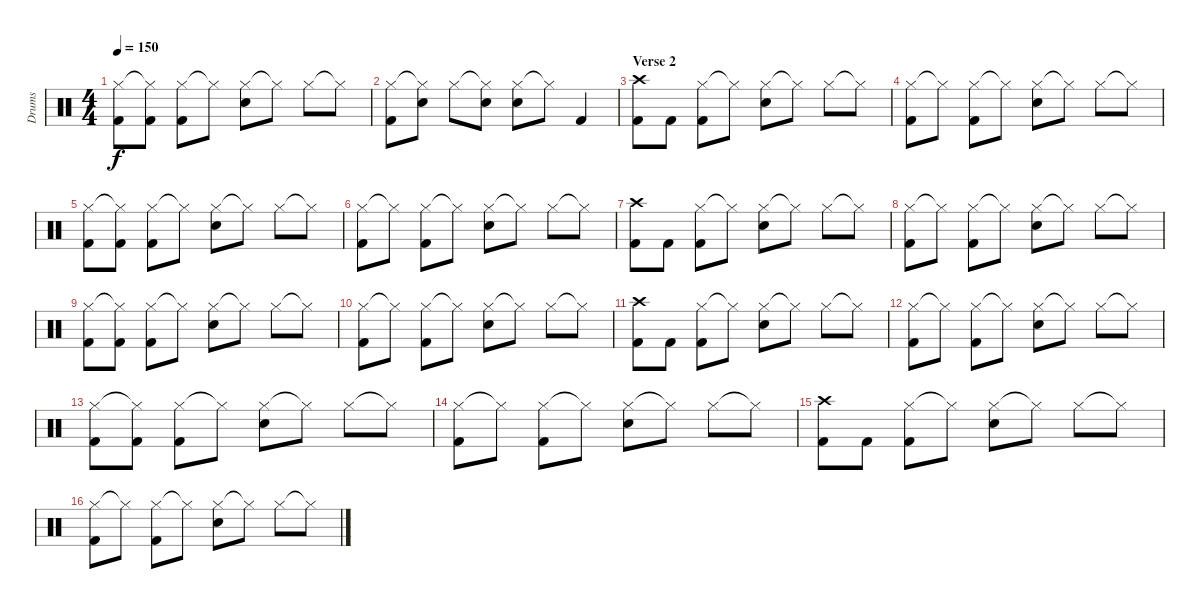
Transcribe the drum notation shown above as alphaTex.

\track ("Drums" "Drums") {instrument percussion}
\staff {score}
\articulation defaults
\ts (4 4)
\tempo 150
\clef neutral
\ks c
("Hi-Hat (closed)" "Kick (hit) 2").8{dy f} ("Hi-Hat (closed)"{t} "Kick (hit) 2").8 ("Hi-Hat (closed)" "Kick (hit) 2").8 "Hi-Hat (closed)"{t}.8 ("Hi-Hat (closed)" "Snare (hit) 2").8 "Hi-Hat (closed)"{t}.8 "Hi-Hat (closed)".8 "Hi-Hat (closed)"{t}.8 |
("Hi-Hat (closed)" "Kick (hit) 2").8 ("Hi-Hat (closed)"{t} "Snare (hit) 2").8 "Hi-Hat (closed)".8 ("Hi-Hat (closed)"{t} "Snare (hit) 2").8 ("Hi-Hat (closed)" "Snare (hit) 2").8 "Hi-Hat (closed)"{t}.8 "Kick (hit) 2".4 |
\section ("" "Verse 2")
("Kick (hit) 2" "Crash high (hit)").8 "Kick (hit) 2".8 ("Hi-Hat (closed)" "Kick (hit) 2").8 "Hi-Hat (closed)"{t}.8 ("Hi-Hat (closed)" "Snare (hit) 2").8 "Hi-Hat (closed)"{t}.8 "Hi-Hat (closed)".8 "Hi-Hat (closed)"{t}.8 |
("Hi-Hat (closed)" "Kick (hit) 2").8 "Hi-Hat (closed)"{t}.8 ("Hi-Hat (closed)" "Kick (hit) 2").8 "Hi-Hat (closed)"{t}.8 ("Hi-Hat (closed)" "Snare (hit) 2").8 "Hi-Hat (closed)"{t}.8 "Hi-Hat (closed)".8 "Hi-Hat (closed)"{t}.8 |
("Hi-Hat (closed)" "Kick (hit) 2").8 ("Hi-Hat (closed)"{t} "Kick (hit) 2").8 ("Hi-Hat (closed)" "Kick (hit) 2").8 "Hi-Hat (closed)"{t}.8 ("Hi-Hat (closed)" "Snare (hit) 2").8 "Hi-Hat (closed)"{t}.8 "Hi-Hat (closed)".8 "Hi-Hat (closed)"{t}.8 |
("Hi-Hat (closed)" "Kick (hit) 2").8 "Hi-Hat (closed)"{t}.8 ("Hi-Hat (closed)" "Kick (hit) 2").8 "Hi-Hat (closed)"{t}.8 ("Hi-Hat (closed)" "Snare (hit) 2").8 "Hi-Hat (closed)"{t}.8 "Hi-Hat (closed)".8 "Hi-Hat (closed)"{t}.8 |
("Kick (hit) 2" "Crash high (hit)").8 "Kick (hit) 2".8 ("Hi-Hat (closed)" "Kick (hit) 2").8 "Hi-Hat (closed)"{t}.8 ("Hi-Hat (closed)" "Snare (hit) 2").8 "Hi-Hat (closed)"{t}.8 "Hi-Hat (closed)".8 "Hi-Hat (closed)"{t}.8 |
("Hi-Hat (closed)" "Kick (hit) 2").8 "Hi-Hat (closed)"{t}.8 ("Hi-Hat (closed)" "Kick (hit) 2").8 "Hi-Hat (closed)"{t}.8 ("Hi-Hat (closed)" "Snare (hit) 2").8 "Hi-Hat (closed)"{t}.8 "Hi-Hat (closed)".8 "Hi-Hat (closed)"{t}.8 |
("Hi-Hat (closed)" "Kick (hit) 2").8 ("Hi-Hat (closed)"{t} "Kick (hit) 2").8 ("Hi-Hat (closed)" "Kick (hit) 2").8 "Hi-Hat (closed)"{t}.8 ("Hi-Hat (closed)" "Snare (hit) 2").8 "Hi-Hat (closed)"{t}.8 "Hi-Hat (closed)".8 "Hi-Hat (closed)"{t}.8 |
("Hi-Hat (closed)" "Kick (hit) 2").8 "Hi-Hat (closed)"{t}.8 ("Hi-Hat (closed)" "Kick (hit) 2").8 "Hi-Hat (closed)"{t}.8 ("Hi-Hat (closed)" "Snare (hit) 2").8 "Hi-Hat (closed)"{t}.8 "Hi-Hat (closed)".8 "Hi-Hat (closed)"{t}.8 |
("Kick (hit) 2" "Crash high (hit)").8 "Kick (hit) 2".8 ("Hi-Hat (closed)" "Kick (hit) 2").8 "Hi-Hat (closed)"{t}.8 ("Hi-Hat (closed)" "Snare (hit) 2").8 "Hi-Hat (closed)"{t}.8 "Hi-Hat (closed)".8 "Hi-Hat (closed)"{t}.8 |
("Hi-Hat (closed)" "Kick (hit) 2").8 "Hi-Hat (closed)"{t}.8 ("Hi-Hat (closed)" "Kick (hit) 2").8 "Hi-Hat (closed)"{t}.8 ("Hi-Hat (closed)" "Snare (hit) 2").8 "Hi-Hat (closed)"{t}.8 "Hi-Hat (closed)".8 "Hi-Hat (closed)"{t}.8 |
("Hi-Hat (closed)" "Kick (hit) 2").8 ("Hi-Hat (closed)"{t} "Kick (hit) 2").8 ("Hi-Hat (closed)" "Kick (hit) 2").8 "Hi-Hat (closed)"{t}.8 ("Hi-Hat (closed)" "Snare (hit) 2").8 "Hi-Hat (closed)"{t}.8 "Hi-Hat (closed)".8 "Hi-Hat (closed)"{t}.8 |
("Hi-Hat (closed)" "Kick (hit) 2").8 "Hi-Hat (closed)"{t}.8 ("Hi-Hat (closed)" "Kick (hit) 2").8 "Hi-Hat (closed)"{t}.8 ("Hi-Hat (closed)" "Snare (hit) 2").8 "Hi-Hat (closed)"{t}.8 "Hi-Hat (closed)".8 "Hi-Hat (closed)"{t}.8 |
("Kick (hit) 2" "Crash high (hit)").8 "Kick (hit) 2".8 ("Hi-Hat (closed)" "Kick (hit) 2").8 "Hi-Hat (closed)"{t}.8 ("Hi-Hat (closed)" "Snare (hit) 2").8 "Hi-Hat (closed)"{t}.8 "Hi-Hat (closed)".8 "Hi-Hat (closed)"{t}.8 |
("Hi-Hat (closed)" "Kick (hit) 2").8 "Hi-Hat (closed)"{t}.8 ("Hi-Hat (closed)" "Kick (hit) 2").8 "Hi-Hat (closed)"{t}.8 ("Hi-Hat (closed)" "Snare (hit) 2").8 "Hi-Hat (closed)"{t}.8 "Hi-Hat (closed)".8 "Hi-Hat (closed)"{t}.8
